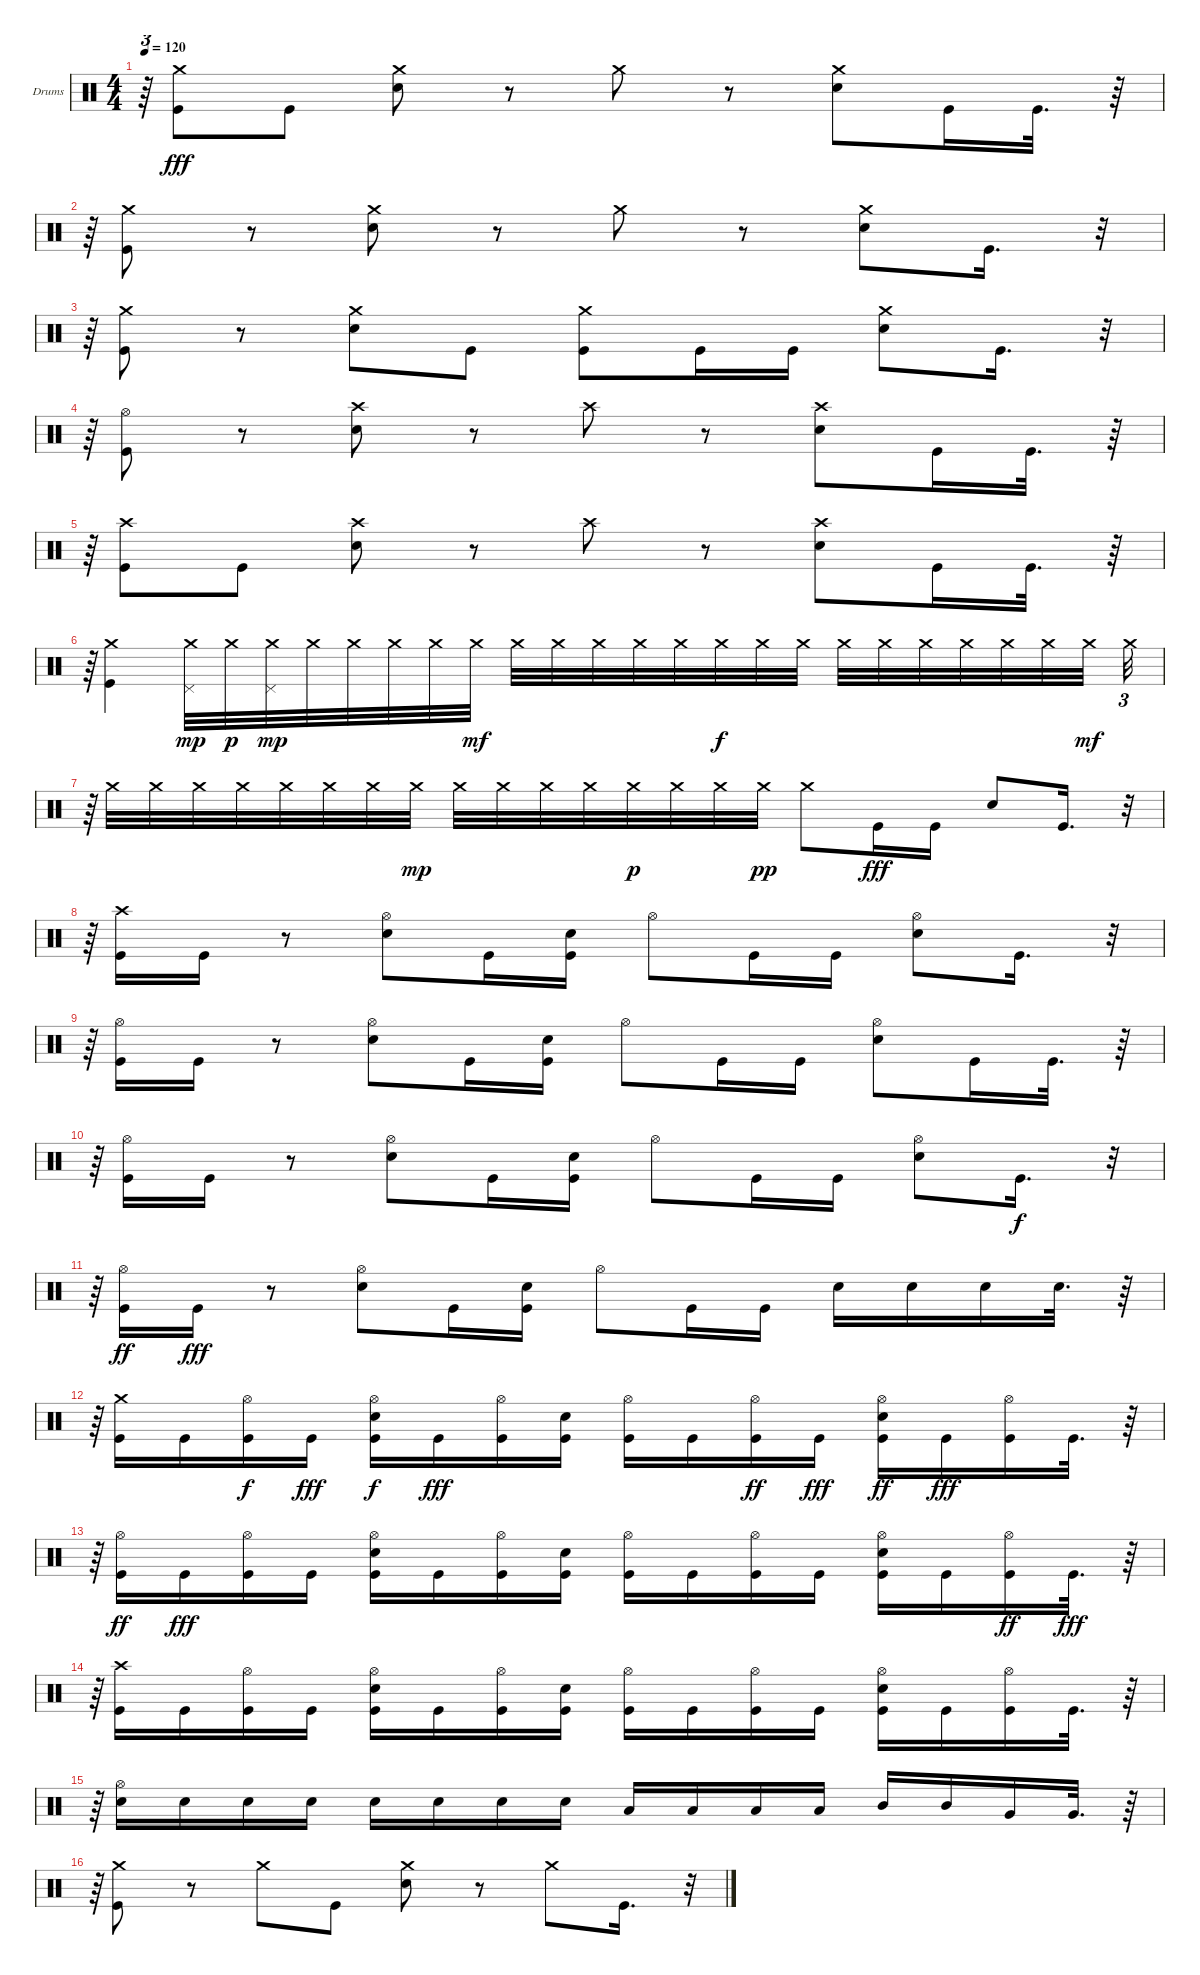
\bracketExtendMode groupsimilarinstruments
\firstSystemTrackNameOrientation horizontal
\otherSystemsTrackNameOrientation horizontal
\track ("Drums" "Drums") {instrument percussion}
\staff {score}
\articulation defaults
\ts (4 4)
\tempo 120
\clef neutral
\ks c
r.64{tu (3 2) dy fff} ("Kick (hit)" "Crash medium (hit)").8 "Kick (hit)".8 ("Snare (hit) 2" "Crash medium (hit)").8 r.8 "Crash medium (hit)".8 r.8 ("Snare (hit) 2" "Crash medium (hit)").8 "Kick (hit)".16 "Kick (hit)".32{d} r.64 |
r.64{tu (3 2)} ("Kick (hit)" "Crash medium (hit)").8 r.8 ("Snare (hit) 2" "Crash medium (hit)").8 r.8 "Crash medium (hit)".8 r.8 ("Snare (hit) 2" "Crash medium (hit)").8 "Kick (hit)".16{d} r.32{tu (3 2)} |
r.64{tu (3 2)} ("Kick (hit)" "Crash medium (hit)").8 r.8 ("Snare (hit) 2" "Crash medium (hit)").8 "Kick (hit)".8 ("Kick (hit)" "Crash medium (hit)").8 "Kick (hit)".16 "Kick (hit)".16 ("Snare (hit) 2" "Crash medium (hit)").8 "Kick (hit)".16{d} r.32{tu (3 2)} |
r.64{tu (3 2)} ("Hi-Hat (open)" "Kick (hit)").8 r.8 ("Snare (hit) 2" "Crash high (hit)").8 r.8 "Crash high (hit)".8 r.8 ("Snare (hit) 2" "Crash high (hit)").8 "Kick (hit)".16 "Kick (hit)".32{d} r.64 |
r.64{tu (3 2)} ("Kick (hit)" "Crash high (hit)").8 "Kick (hit)".8 ("Snare (hit) 2" "Crash high (hit)").8 r.8 "Crash high (hit)".8 r.8 ("Snare (hit) 2" "Crash high (hit)").8 "Kick (hit)".16 "Kick (hit)".32{d} r.64 |
r.64{tu (3 2)} ("Kick (hit)" "Crash medium (hit)").4 ("Pedal Hi-Hat (hit)" "Crash medium (hit)").32{dy mp} "Crash medium (hit)".32{dy p} ("Pedal Hi-Hat (hit)" "Crash medium (hit)").32{dy mp} "Crash medium (hit)".32 "Crash medium (hit)".32 "Crash medium (hit)".32 "Crash medium (hit)".32 "Crash medium (hit)".32{dy mf} "Crash medium (hit)".32 "Crash medium (hit)".32 "Crash medium (hit)".32 "Crash medium (hit)".32 "Crash medium (hit)".32 "Crash medium (hit)".32{dy f} "Crash medium (hit)".32 "Crash medium (hit)".32 "Crash medium (hit)".32 "Crash medium (hit)".32 "Crash medium (hit)".32 "Crash medium (hit)".32 "Crash medium (hit)".32 "Crash medium (hit)".32 "Crash medium (hit)".32{dy mf} "Crash medium (hit)".32{tu (3 2)} |
r.64{tu (3 2)} "Crash medium (hit)".32 "Crash medium (hit)".32 "Crash medium (hit)".32 "Crash medium (hit)".32 "Crash medium (hit)".32 "Crash medium (hit)".32 "Crash medium (hit)".32 "Crash medium (hit)".32{dy mp} "Crash medium (hit)".32 "Crash medium (hit)".32 "Crash medium (hit)".32 "Crash medium (hit)".32 "Crash medium (hit)".32{dy p} "Crash medium (hit)".32 "Crash medium (hit)".32 "Crash medium (hit)".32{dy pp} "Crash medium (hit)".8 "Kick (hit)".16{dy fff} "Kick (hit)".16 "Snare (hit) 2".8 "Kick (hit)".16{d} r.32{tu (3 2)} |
r.64{tu (3 2)} ("Crash high (hit)" "Kick (hit)").16 "Kick (hit)".16 r.8 ("Hi-Hat (open)" "Snare (hit) 2").8 "Kick (hit)".16 ("Kick (hit)" "Snare (hit) 2").16 "Hi-Hat (open)".8 "Kick (hit)".16 "Kick (hit)".16 ("Hi-Hat (open)" "Snare (hit) 2").8 "Kick (hit)".16{d} r.32{tu (3 2)} |
r.64{tu (3 2)} ("Hi-Hat (open)" "Kick (hit)").16 "Kick (hit)".16 r.8 ("Hi-Hat (open)" "Snare (hit) 2").8 "Kick (hit)".16 ("Kick (hit)" "Snare (hit) 2").16 "Hi-Hat (open)".8 "Kick (hit)".16 "Kick (hit)".16 ("Hi-Hat (open)" "Snare (hit) 2").8 "Kick (hit)".16 "Kick (hit)".32{d} r.64 |
r.64{tu (3 2)} ("Hi-Hat (open)" "Kick (hit)").16 "Kick (hit)".16 r.8 ("Hi-Hat (open)" "Snare (hit) 2").8 "Kick (hit)".16 ("Kick (hit)" "Snare (hit) 2").16 "Hi-Hat (open)".8 "Kick (hit)".16 "Kick (hit)".16 ("Hi-Hat (open)" "Snare (hit) 2").8 "Kick (hit)".16{d dy f} r.32{tu (3 2)} |
r.64{tu (3 2)} ("Hi-Hat (open)" "Kick (hit)").16{dy ff} "Kick (hit)".16{dy fff} r.8 ("Hi-Hat (open)" "Snare (hit) 2").8 "Kick (hit)".16 ("Kick (hit)" "Snare (hit) 2").16 "Hi-Hat (open)".8 "Kick (hit)".16 "Kick (hit)".16 "Snare (hit) 2".16 "Snare (hit) 2".16 "Snare (hit) 2".16 "Snare (hit) 2".32{d} r.64 |
r.64{tu (3 2)} ("Crash medium (hit)" "Kick (hit)").16 "Kick (hit)".16 ("Hi-Hat (open)" "Kick (hit)").16{dy f} "Kick (hit)".16{dy fff} ("Hi-Hat (open)" "Snare (hit) 2" "Kick (hit)").16{dy f} "Kick (hit)".16{dy fff} ("Kick (hit)" "Hi-Hat (open)").16 ("Kick (hit)" "Snare (hit) 2").16 ("Kick (hit)" "Hi-Hat (open)").16 "Kick (hit)".16 ("Hi-Hat (open)" "Kick (hit)").16{dy ff} "Kick (hit)".16{dy fff} ("Hi-Hat (open)" "Snare (hit) 2" "Kick (hit)").16{dy ff} "Kick (hit)".16{dy fff} ("Kick (hit)" "Hi-Hat (open)").16 "Kick (hit)".32{d} r.64 |
r.64{tu (3 2)} ("Hi-Hat (open)" "Kick (hit)").16{dy ff} "Kick (hit)".16{dy fff} ("Kick (hit)" "Hi-Hat (open)").16 "Kick (hit)".16 ("Kick (hit)" "Snare (hit) 2" "Hi-Hat (open)").16 "Kick (hit)".16 ("Kick (hit)" "Hi-Hat (open)").16 ("Snare (hit) 2" "Kick (hit)").16 ("Kick (hit)" "Hi-Hat (open)").16 "Kick (hit)".16 ("Kick (hit)" "Hi-Hat (open)").16 "Kick (hit)".16 ("Snare (hit) 2" "Kick (hit)" "Hi-Hat (open)").16 "Kick (hit)".16 ("Hi-Hat (open)" "Kick (hit)").16{dy ff} "Kick (hit)".32{d dy fff} r.64 |
r.64{tu (3 2)} ("Crash high (hit)" "Kick (hit)").16 "Kick (hit)".16 ("Kick (hit)" "Hi-Hat (open)").16 "Kick (hit)".16 ("Snare (hit) 2" "Kick (hit)" "Hi-Hat (open)").16 "Kick (hit)".16 ("Kick (hit)" "Hi-Hat (open)").16 ("Snare (hit) 2" "Kick (hit)").16 ("Kick (hit)" "Hi-Hat (open)").16 "Kick (hit)".16 ("Kick (hit)" "Hi-Hat (open)").16 "Kick (hit)".16 ("Snare (hit) 2" "Kick (hit)" "Hi-Hat (open)").16 "Kick (hit)".16 ("Kick (hit)" "Hi-Hat (open)").16 "Kick (hit)".32{d} r.64 |
r.64{tu (3 2)} ("Hi-Hat (open)" "Snare (hit) 2").16 "Snare (hit) 2".16 "Snare (hit) 2".16 "Snare (hit) 2".16 "Snare (hit) 2".16 "Snare (hit) 2".16 "Snare (hit) 2".16 "Snare (hit) 2".16 "Low Tom (hit)".16 "Low Tom (hit)".16 "Low Tom (hit)".16 "Low Tom (hit)".16 "Mid Tom (hit)".16 "Mid Tom (hit)".16 "Very Low Tom (hit)".16 "Very Low Tom (hit)".32{d} r.64 |
r.64{tu (3 2)} ("Kick (hit)" "Crash medium (hit)").8 r.8 "Crash medium (hit)".8 "Kick (hit)".8 ("Snare (hit) 2" "Crash medium (hit)").8 r.8 "Crash medium (hit)".8 "Kick (hit)".16{d} r.32{tu (3 2)}
